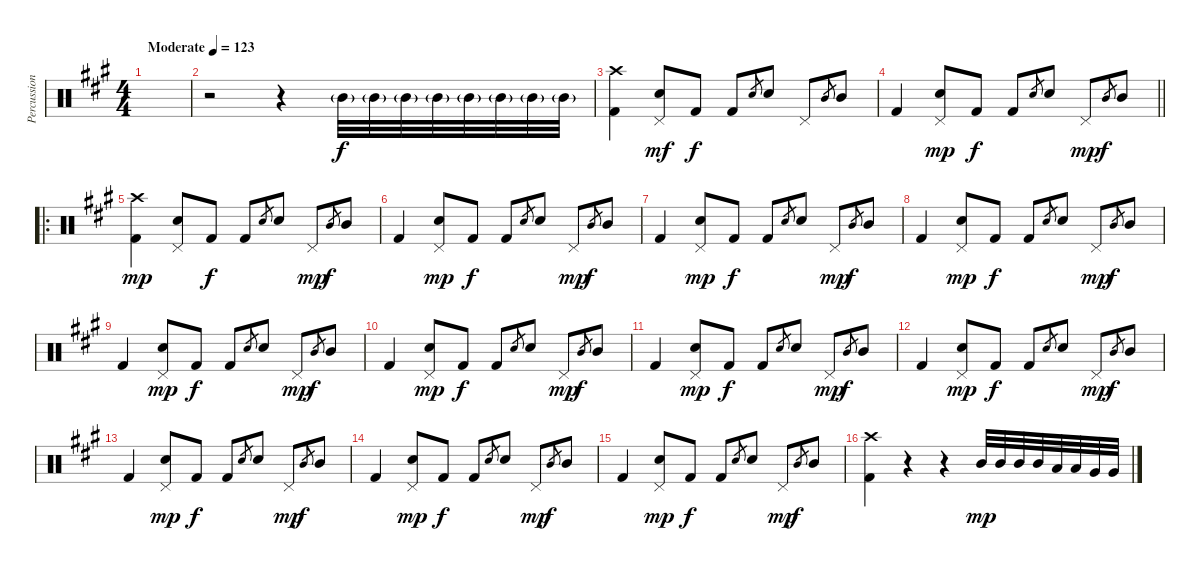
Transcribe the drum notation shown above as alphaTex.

\track ("Percussion" "Percussion") {instrument percussion}
\staff {score}
\articulation defaults
\ts (4 4)
\tempo (123 "Moderate")
\clef neutral
\ks a
|
r.2 r.4 "Mid Tom (hit)"{g}.32 "Mid Tom (hit)"{g}.32 "Mid Tom (hit)"{g}.32 "Mid Tom (hit)"{g}.32 "Mid Tom (hit)"{g}.32 "Mid Tom (hit)"{g}.32 "Mid Tom (hit)"{g}.32 "Mid Tom (hit)"{g}.32 |
("Crash high (hit)" "Kick (hit) 2").4 ("Snare (hit) 2" "Pedal Hi-Hat (hit)").8{dy mf} "Kick (hit) 2".8{dy f} "Kick (hit) 2".8 "Snare (hit) 2".8{gr} "Snare (hit) 2".8 "Pedal Hi-Hat (hit)".8 "Mid Tom (hit)".8{gr} "Mid Tom (hit)".8 |
\barLineRight lightlight "Kick (hit) 2".4
("Snare (hit) 2" "Pedal Hi-Hat (hit)").8{dy mp} "Kick (hit) 2".8{dy f} "Kick (hit) 2".8 "Snare (hit) 2".8{gr} "Snare (hit) 2".8 "Pedal Hi-Hat (hit)".8{dy mp} "Mid Tom (hit)".8{gr dy f} "Mid Tom (hit)".8 |
\ro
("Kick (hit) 2" "Crash high (hit)").4{dy mp} ("Snare (hit) 2" "Pedal Hi-Hat (hit)").8 "Kick (hit) 2".8{dy f} "Kick (hit) 2".8 "Snare (hit) 2".8{gr} "Snare (hit) 2".8 "Pedal Hi-Hat (hit)".8{dy mp} "Mid Tom (hit)".8{gr dy f} "Mid Tom (hit)".8 |
"Kick (hit) 2".4 ("Snare (hit) 2" "Pedal Hi-Hat (hit)").8{dy mp} "Kick (hit) 2".8{dy f} "Kick (hit) 2".8 "Snare (hit) 2".8{gr} "Snare (hit) 2".8 "Pedal Hi-Hat (hit)".8{dy mp} "Mid Tom (hit)".8{gr dy f} "Mid Tom (hit)".8 |
"Kick (hit) 2".4 ("Snare (hit) 2" "Pedal Hi-Hat (hit)").8{dy mp} "Kick (hit) 2".8{dy f} "Kick (hit) 2".8 "Snare (hit) 2".8{gr} "Snare (hit) 2".8 "Pedal Hi-Hat (hit)".8{dy mp} "Mid Tom (hit)".8{gr dy f} "Mid Tom (hit)".8 |
"Kick (hit) 2".4 ("Snare (hit) 2" "Pedal Hi-Hat (hit)").8{dy mp} "Kick (hit) 2".8{dy f} "Kick (hit) 2".8 "Snare (hit) 2".8{gr} "Snare (hit) 2".8 "Pedal Hi-Hat (hit)".8{dy mp} "Mid Tom (hit)".8{gr dy f} "Mid Tom (hit)".8 |
"Kick (hit) 2".4 ("Snare (hit) 2" "Pedal Hi-Hat (hit)").8{dy mp} "Kick (hit) 2".8{dy f} "Kick (hit) 2".8 "Snare (hit) 2".8{gr} "Snare (hit) 2".8 "Pedal Hi-Hat (hit)".8{dy mp} "Mid Tom (hit)".8{gr dy f} "Mid Tom (hit)".8 |
"Kick (hit) 2".4 ("Snare (hit) 2" "Pedal Hi-Hat (hit)").8{dy mp} "Kick (hit) 2".8{dy f} "Kick (hit) 2".8 "Snare (hit) 2".8{gr} "Snare (hit) 2".8 "Pedal Hi-Hat (hit)".8{dy mp} "Mid Tom (hit)".8{gr dy f} "Mid Tom (hit)".8 |
"Kick (hit) 2".4 ("Snare (hit) 2" "Pedal Hi-Hat (hit)").8{dy mp} "Kick (hit) 2".8{dy f} "Kick (hit) 2".8 "Snare (hit) 2".8{gr} "Snare (hit) 2".8 "Pedal Hi-Hat (hit)".8{dy mp} "Mid Tom (hit)".8{gr dy f} "Mid Tom (hit)".8 |
"Kick (hit) 2".4 ("Snare (hit) 2" "Pedal Hi-Hat (hit)").8{dy mp} "Kick (hit) 2".8{dy f} "Kick (hit) 2".8 "Snare (hit) 2".8{gr} "Snare (hit) 2".8 "Pedal Hi-Hat (hit)".8{dy mp} "Mid Tom (hit)".8{gr dy f} "Mid Tom (hit)".8 |
"Kick (hit) 2".4 ("Snare (hit) 2" "Pedal Hi-Hat (hit)").8{dy mp} "Kick (hit) 2".8{dy f} "Kick (hit) 2".8 "Snare (hit) 2".8{gr} "Snare (hit) 2".8 "Pedal Hi-Hat (hit)".8{dy mp} "Mid Tom (hit)".8{gr dy f} "Mid Tom (hit)".8 |
"Kick (hit) 2".4 ("Snare (hit) 2" "Pedal Hi-Hat (hit)").8{dy mp} "Kick (hit) 2".8{dy f} "Kick (hit) 2".8 "Snare (hit) 2".8{gr} "Snare (hit) 2".8 "Pedal Hi-Hat (hit)".8{dy mp} "Mid Tom (hit)".8{gr dy f} "Mid Tom (hit)".8 |
"Kick (hit) 2".4 ("Snare (hit) 2" "Pedal Hi-Hat (hit)").8{dy mp} "Kick (hit) 2".8{dy f} "Kick (hit) 2".8 "Snare (hit) 2".8{gr} "Snare (hit) 2".8 "Pedal Hi-Hat (hit)".8{dy mp} "Mid Tom (hit)".8{gr dy f} "Mid Tom (hit)".8 |
("Crash high (hit)" "Kick (hit) 2").4 r.4 r.4 "Mid Tom (hit)".32{dy mp} "Mid Tom (hit)".32 "Mid Tom (hit)".32 "Mid Tom (hit)".32 "Low Tom (hit)".32 "Low Tom (hit)".32 "Very Low Tom (hit)".32 "Very Low Tom (hit)".32
